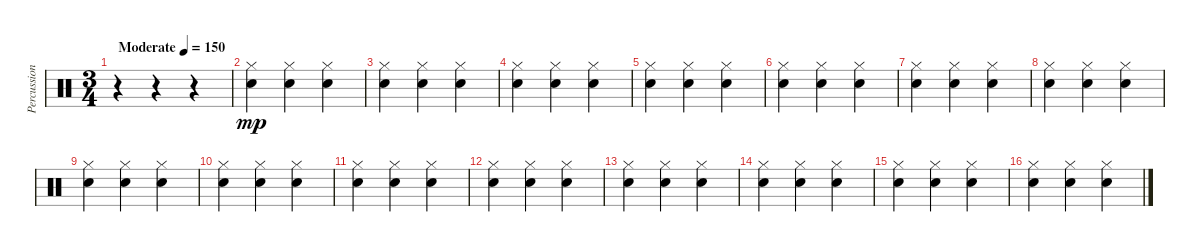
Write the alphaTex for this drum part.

\track ("Percussion" "Percussion") {instrument percussion}
\staff {score}
\articulation defaults
\ts (3 4)
\tempo (150 "Moderate")
\clef neutral
\ks c
r.4{dy mp} r.4 r.4 |
("Hi-Hat (closed)" "Electric Snare (hit)").4 ("Hi-Hat (closed)" "Electric Snare (hit)").4 ("Hi-Hat (closed)" "Electric Snare (hit)").4 |
("Hi-Hat (closed)" "Electric Snare (hit)").4 ("Hi-Hat (closed)" "Electric Snare (hit)").4 ("Hi-Hat (closed)" "Electric Snare (hit)").4 |
("Hi-Hat (closed)" "Electric Snare (hit)").4 ("Hi-Hat (closed)" "Electric Snare (hit)").4 ("Hi-Hat (closed)" "Electric Snare (hit)").4 |
("Hi-Hat (closed)" "Electric Snare (hit)").4 ("Hi-Hat (closed)" "Electric Snare (hit)").4 ("Hi-Hat (closed)" "Electric Snare (hit)").4 |
("Hi-Hat (closed)" "Electric Snare (hit)").4 ("Hi-Hat (closed)" "Electric Snare (hit)").4 ("Hi-Hat (closed)" "Electric Snare (hit)").4 |
("Hi-Hat (closed)" "Electric Snare (hit)").4 ("Hi-Hat (closed)" "Electric Snare (hit)").4 ("Hi-Hat (closed)" "Electric Snare (hit)").4 |
("Hi-Hat (closed)" "Electric Snare (hit)").4 ("Hi-Hat (closed)" "Electric Snare (hit)").4 ("Hi-Hat (closed)" "Electric Snare (hit)").4 |
("Hi-Hat (closed)" "Electric Snare (hit)").4 ("Hi-Hat (closed)" "Electric Snare (hit)").4 ("Hi-Hat (closed)" "Electric Snare (hit)").4 |
("Hi-Hat (closed)" "Electric Snare (hit)").4 ("Hi-Hat (closed)" "Electric Snare (hit)").4 ("Hi-Hat (closed)" "Electric Snare (hit)").4 |
("Hi-Hat (closed)" "Electric Snare (hit)").4 ("Hi-Hat (closed)" "Electric Snare (hit)").4 ("Hi-Hat (closed)" "Electric Snare (hit)").4 |
("Hi-Hat (closed)" "Electric Snare (hit)").4 ("Hi-Hat (closed)" "Electric Snare (hit)").4 ("Hi-Hat (closed)" "Electric Snare (hit)").4 |
("Hi-Hat (closed)" "Electric Snare (hit)").4 ("Hi-Hat (closed)" "Electric Snare (hit)").4 ("Hi-Hat (closed)" "Electric Snare (hit)").4 |
("Hi-Hat (closed)" "Electric Snare (hit)").4 ("Hi-Hat (closed)" "Electric Snare (hit)").4 ("Hi-Hat (closed)" "Electric Snare (hit)").4 |
("Hi-Hat (closed)" "Electric Snare (hit)").4 ("Hi-Hat (closed)" "Electric Snare (hit)").4 ("Hi-Hat (closed)" "Electric Snare (hit)").4 |
("Hi-Hat (closed)" "Electric Snare (hit)").4 ("Hi-Hat (closed)" "Electric Snare (hit)").4 ("Hi-Hat (closed)" "Electric Snare (hit)").4
